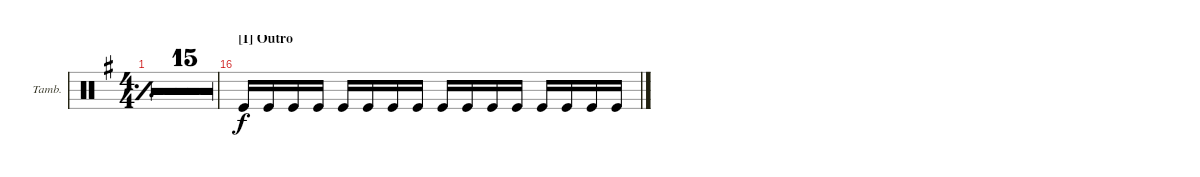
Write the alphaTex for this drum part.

\defaultSystemsLayout 4
\bracketExtendMode groupsimilarinstruments
\firstSystemTrackNameOrientation horizontal
\otherSystemsTrackNameOrientation horizontal
\track ("Tambourine" "Tamb.") {multiBarRest instrument percussion}
\staff {score}
\articulation defaults
\ts (4 4)
\tempo 98
\clef neutral
\simile simple
\ks g
|
|
|
|
|
|
|
|
|
|
|
|
|
|
|
\section ("I" "Outro")
\simile none "Kick (hit)".16 "Kick (hit)".16 "Kick (hit)".16 "Kick (hit)".16 "Kick (hit)".16 "Kick (hit)".16 "Kick (hit)".16 "Kick (hit)".16 "Kick (hit)".16 "Kick (hit)".16 "Kick (hit)".16 "Kick (hit)".16 "Kick (hit)".16 "Kick (hit)".16 "Kick (hit)".16 "Kick (hit)".16
